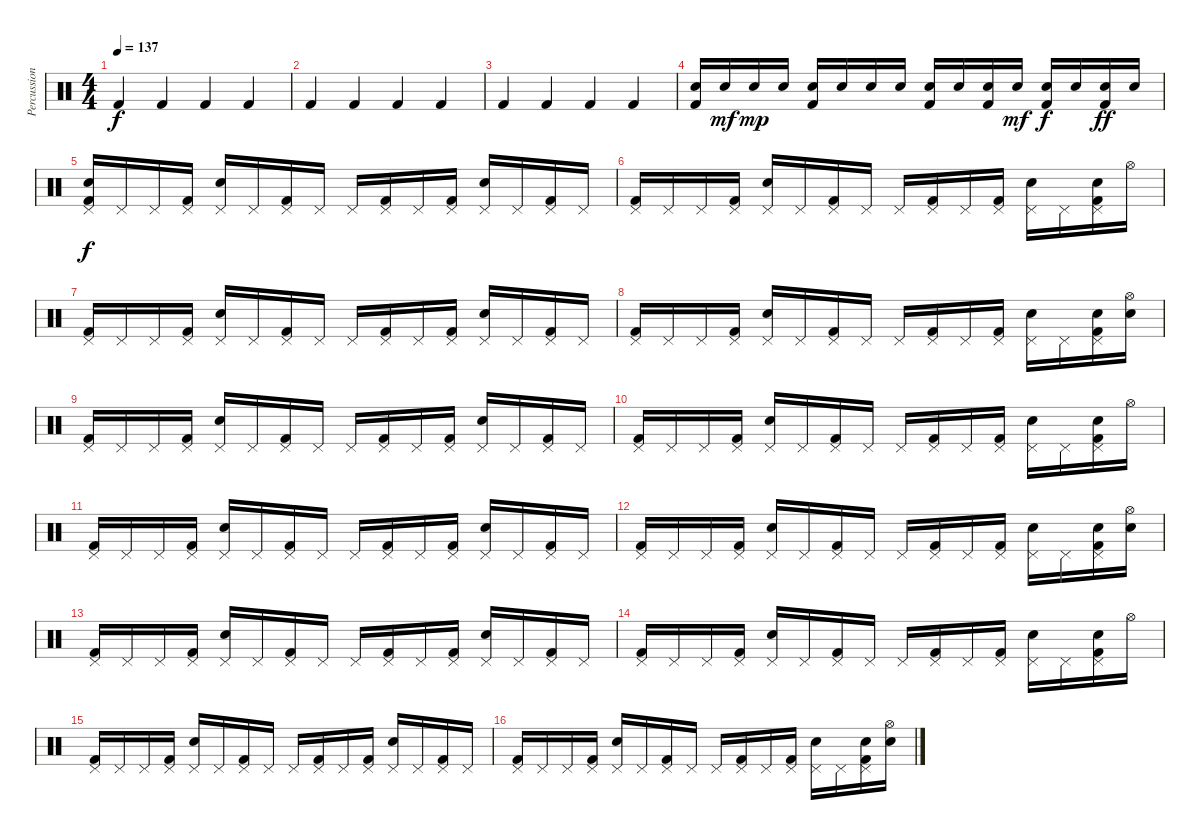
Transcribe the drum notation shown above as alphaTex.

\track ("Percussion" "Percussion") {instrument percussion}
\staff {score}
\articulation defaults
\ts (4 4)
\tempo 137
\clef neutral
\ks c "Kick (hit) 2".4{dy f} "Kick (hit) 2".4 "Kick (hit) 2".4 "Kick (hit) 2".4
|
"Kick (hit) 2".4 "Kick (hit) 2".4 "Kick (hit) 2".4 "Kick (hit) 2".4 |
"Kick (hit) 2".4 "Kick (hit) 2".4 "Kick (hit) 2".4 "Kick (hit) 2".4 |
("Snare (hit) 2" "Kick (hit) 2").16 "Snare (hit) 2".16{dy mf} "Snare (hit) 2".16{dy mp} "Snare (hit) 2".16 ("Snare (hit) 2" "Kick (hit) 2").16 "Snare (hit) 2".16 "Snare (hit) 2".16 "Snare (hit) 2".16 ("Snare (hit) 2" "Kick (hit) 2").16 "Snare (hit) 2".16 ("Snare (hit) 2" "Kick (hit) 2").16 "Snare (hit) 2".16{dy mf} ("Snare (hit) 2" "Kick (hit) 2").16{dy f} "Snare (hit) 2".16 ("Snare (hit) 2" "Kick (hit) 2").16{dy ff} "Snare (hit) 2".16 |
("Pedal Hi-Hat (hit)" "Snare (hit) 2" "Kick (hit) 2").16{dy f} "Pedal Hi-Hat (hit)".16 "Pedal Hi-Hat (hit)".16 ("Pedal Hi-Hat (hit)" "Kick (hit) 2").16 ("Pedal Hi-Hat (hit)" "Snare (hit) 2").16 "Pedal Hi-Hat (hit)".16 ("Pedal Hi-Hat (hit)" "Kick (hit) 2").16 "Pedal Hi-Hat (hit)".16 "Pedal Hi-Hat (hit)".16 ("Pedal Hi-Hat (hit)" "Kick (hit) 2").16 "Pedal Hi-Hat (hit)".16 ("Pedal Hi-Hat (hit)" "Kick (hit) 2").16 ("Pedal Hi-Hat (hit)" "Snare (hit) 2").16 "Pedal Hi-Hat (hit)".16 ("Pedal Hi-Hat (hit)" "Kick (hit) 2").16 "Pedal Hi-Hat (hit)".16 |
("Pedal Hi-Hat (hit)" "Kick (hit) 2").16 "Pedal Hi-Hat (hit)".16 "Pedal Hi-Hat (hit)".16 ("Pedal Hi-Hat (hit)" "Kick (hit) 2").16 ("Pedal Hi-Hat (hit)" "Snare (hit) 2").16 "Pedal Hi-Hat (hit)".16 ("Pedal Hi-Hat (hit)" "Kick (hit) 2").16 "Pedal Hi-Hat (hit)".16 "Pedal Hi-Hat (hit)".16 ("Pedal Hi-Hat (hit)" "Kick (hit) 2").16 "Pedal Hi-Hat (hit)".16 ("Pedal Hi-Hat (hit)" "Kick (hit) 2").16 ("Pedal Hi-Hat (hit)" "Snare (hit) 2").16 "Pedal Hi-Hat (hit)".16 ("Pedal Hi-Hat (hit)" "Snare (hit) 2" "Kick (hit) 2").16 "Hi-Hat (open)".16 |
("Pedal Hi-Hat (hit)" "Kick (hit) 2").16 "Pedal Hi-Hat (hit)".16 "Pedal Hi-Hat (hit)".16 ("Pedal Hi-Hat (hit)" "Kick (hit) 2").16 ("Pedal Hi-Hat (hit)" "Snare (hit) 2").16 "Pedal Hi-Hat (hit)".16 ("Pedal Hi-Hat (hit)" "Kick (hit) 2").16 "Pedal Hi-Hat (hit)".16 "Pedal Hi-Hat (hit)".16 ("Pedal Hi-Hat (hit)" "Kick (hit) 2").16 "Pedal Hi-Hat (hit)".16 ("Pedal Hi-Hat (hit)" "Kick (hit) 2").16 ("Pedal Hi-Hat (hit)" "Snare (hit) 2").16 "Pedal Hi-Hat (hit)".16 ("Pedal Hi-Hat (hit)" "Kick (hit) 2").16 "Pedal Hi-Hat (hit)".16 |
("Pedal Hi-Hat (hit)" "Kick (hit) 2").16 "Pedal Hi-Hat (hit)".16 "Pedal Hi-Hat (hit)".16 ("Pedal Hi-Hat (hit)" "Kick (hit) 2").16 ("Pedal Hi-Hat (hit)" "Snare (hit) 2").16 "Pedal Hi-Hat (hit)".16 ("Pedal Hi-Hat (hit)" "Kick (hit) 2").16 "Pedal Hi-Hat (hit)".16 "Pedal Hi-Hat (hit)".16 ("Pedal Hi-Hat (hit)" "Kick (hit) 2").16 "Pedal Hi-Hat (hit)".16 ("Pedal Hi-Hat (hit)" "Kick (hit) 2").16 ("Pedal Hi-Hat (hit)" "Snare (hit) 2").16 "Pedal Hi-Hat (hit)".16 ("Pedal Hi-Hat (hit)" "Snare (hit) 2" "Kick (hit) 2").16 ("Hi-Hat (open)" "Snare (hit) 2").16 |
("Pedal Hi-Hat (hit)" "Kick (hit) 2").16 "Pedal Hi-Hat (hit)".16 "Pedal Hi-Hat (hit)".16 ("Pedal Hi-Hat (hit)" "Kick (hit) 2").16 ("Pedal Hi-Hat (hit)" "Snare (hit) 2").16 "Pedal Hi-Hat (hit)".16 ("Pedal Hi-Hat (hit)" "Kick (hit) 2").16 "Pedal Hi-Hat (hit)".16 "Pedal Hi-Hat (hit)".16 ("Pedal Hi-Hat (hit)" "Kick (hit) 2").16 "Pedal Hi-Hat (hit)".16 ("Pedal Hi-Hat (hit)" "Kick (hit) 2").16 ("Pedal Hi-Hat (hit)" "Snare (hit) 2").16 "Pedal Hi-Hat (hit)".16 ("Pedal Hi-Hat (hit)" "Kick (hit) 2").16 "Pedal Hi-Hat (hit)".16 |
("Pedal Hi-Hat (hit)" "Kick (hit) 2").16 "Pedal Hi-Hat (hit)".16 "Pedal Hi-Hat (hit)".16 ("Pedal Hi-Hat (hit)" "Kick (hit) 2").16 ("Pedal Hi-Hat (hit)" "Snare (hit) 2").16 "Pedal Hi-Hat (hit)".16 ("Pedal Hi-Hat (hit)" "Kick (hit) 2").16 "Pedal Hi-Hat (hit)".16 "Pedal Hi-Hat (hit)".16 ("Pedal Hi-Hat (hit)" "Kick (hit) 2").16 "Pedal Hi-Hat (hit)".16 ("Pedal Hi-Hat (hit)" "Kick (hit) 2").16 ("Pedal Hi-Hat (hit)" "Snare (hit) 2").16 "Pedal Hi-Hat (hit)".16 ("Pedal Hi-Hat (hit)" "Snare (hit) 2" "Kick (hit) 2").16 "Hi-Hat (open)".16 |
("Pedal Hi-Hat (hit)" "Kick (hit) 2").16 "Pedal Hi-Hat (hit)".16 "Pedal Hi-Hat (hit)".16 ("Pedal Hi-Hat (hit)" "Kick (hit) 2").16 ("Pedal Hi-Hat (hit)" "Snare (hit) 2").16 "Pedal Hi-Hat (hit)".16 ("Pedal Hi-Hat (hit)" "Kick (hit) 2").16 "Pedal Hi-Hat (hit)".16 "Pedal Hi-Hat (hit)".16 ("Pedal Hi-Hat (hit)" "Kick (hit) 2").16 "Pedal Hi-Hat (hit)".16 ("Pedal Hi-Hat (hit)" "Kick (hit) 2").16 ("Pedal Hi-Hat (hit)" "Snare (hit) 2").16 "Pedal Hi-Hat (hit)".16 ("Pedal Hi-Hat (hit)" "Kick (hit) 2").16 "Pedal Hi-Hat (hit)".16 |
("Pedal Hi-Hat (hit)" "Kick (hit) 2").16 "Pedal Hi-Hat (hit)".16 "Pedal Hi-Hat (hit)".16 ("Pedal Hi-Hat (hit)" "Kick (hit) 2").16 ("Pedal Hi-Hat (hit)" "Snare (hit) 2").16 "Pedal Hi-Hat (hit)".16 ("Pedal Hi-Hat (hit)" "Kick (hit) 2").16 "Pedal Hi-Hat (hit)".16 "Pedal Hi-Hat (hit)".16 ("Pedal Hi-Hat (hit)" "Kick (hit) 2").16 "Pedal Hi-Hat (hit)".16 ("Pedal Hi-Hat (hit)" "Kick (hit) 2").16 ("Pedal Hi-Hat (hit)" "Snare (hit) 2").16 "Pedal Hi-Hat (hit)".16 ("Pedal Hi-Hat (hit)" "Snare (hit) 2" "Kick (hit) 2").16 ("Hi-Hat (open)" "Snare (hit) 2").16 |
("Pedal Hi-Hat (hit)" "Kick (hit) 2").16 "Pedal Hi-Hat (hit)".16 "Pedal Hi-Hat (hit)".16 ("Pedal Hi-Hat (hit)" "Kick (hit) 2").16 ("Pedal Hi-Hat (hit)" "Snare (hit) 2").16 "Pedal Hi-Hat (hit)".16 ("Pedal Hi-Hat (hit)" "Kick (hit) 2").16 "Pedal Hi-Hat (hit)".16 "Pedal Hi-Hat (hit)".16 ("Pedal Hi-Hat (hit)" "Kick (hit) 2").16 "Pedal Hi-Hat (hit)".16 ("Pedal Hi-Hat (hit)" "Kick (hit) 2").16 ("Pedal Hi-Hat (hit)" "Snare (hit) 2").16 "Pedal Hi-Hat (hit)".16 ("Pedal Hi-Hat (hit)" "Kick (hit) 2").16 "Pedal Hi-Hat (hit)".16 |
("Pedal Hi-Hat (hit)" "Kick (hit) 2").16 "Pedal Hi-Hat (hit)".16 "Pedal Hi-Hat (hit)".16 ("Pedal Hi-Hat (hit)" "Kick (hit) 2").16 ("Pedal Hi-Hat (hit)" "Snare (hit) 2").16 "Pedal Hi-Hat (hit)".16 ("Pedal Hi-Hat (hit)" "Kick (hit) 2").16 "Pedal Hi-Hat (hit)".16 "Pedal Hi-Hat (hit)".16 ("Pedal Hi-Hat (hit)" "Kick (hit) 2").16 "Pedal Hi-Hat (hit)".16 ("Pedal Hi-Hat (hit)" "Kick (hit) 2").16 ("Pedal Hi-Hat (hit)" "Snare (hit) 2").16 "Pedal Hi-Hat (hit)".16 ("Pedal Hi-Hat (hit)" "Snare (hit) 2" "Kick (hit) 2").16 "Hi-Hat (open)".16 |
("Pedal Hi-Hat (hit)" "Kick (hit) 2").16 "Pedal Hi-Hat (hit)".16 "Pedal Hi-Hat (hit)".16 ("Pedal Hi-Hat (hit)" "Kick (hit) 2").16 ("Pedal Hi-Hat (hit)" "Snare (hit) 2").16 "Pedal Hi-Hat (hit)".16 ("Pedal Hi-Hat (hit)" "Kick (hit) 2").16 "Pedal Hi-Hat (hit)".16 "Pedal Hi-Hat (hit)".16 ("Pedal Hi-Hat (hit)" "Kick (hit) 2").16 "Pedal Hi-Hat (hit)".16 ("Pedal Hi-Hat (hit)" "Kick (hit) 2").16 ("Pedal Hi-Hat (hit)" "Snare (hit) 2").16 "Pedal Hi-Hat (hit)".16 ("Pedal Hi-Hat (hit)" "Kick (hit) 2").16 "Pedal Hi-Hat (hit)".16 |
("Pedal Hi-Hat (hit)" "Kick (hit) 2").16 "Pedal Hi-Hat (hit)".16 "Pedal Hi-Hat (hit)".16 ("Pedal Hi-Hat (hit)" "Kick (hit) 2").16 ("Pedal Hi-Hat (hit)" "Snare (hit) 2").16 "Pedal Hi-Hat (hit)".16 ("Pedal Hi-Hat (hit)" "Kick (hit) 2").16 "Pedal Hi-Hat (hit)".16 "Pedal Hi-Hat (hit)".16 ("Pedal Hi-Hat (hit)" "Kick (hit) 2").16 "Pedal Hi-Hat (hit)".16 ("Pedal Hi-Hat (hit)" "Kick (hit) 2").16 ("Pedal Hi-Hat (hit)" "Snare (hit) 2").16 "Pedal Hi-Hat (hit)".16 ("Pedal Hi-Hat (hit)" "Snare (hit) 2" "Kick (hit) 2").16 ("Hi-Hat (open)" "Snare (hit) 2").16
